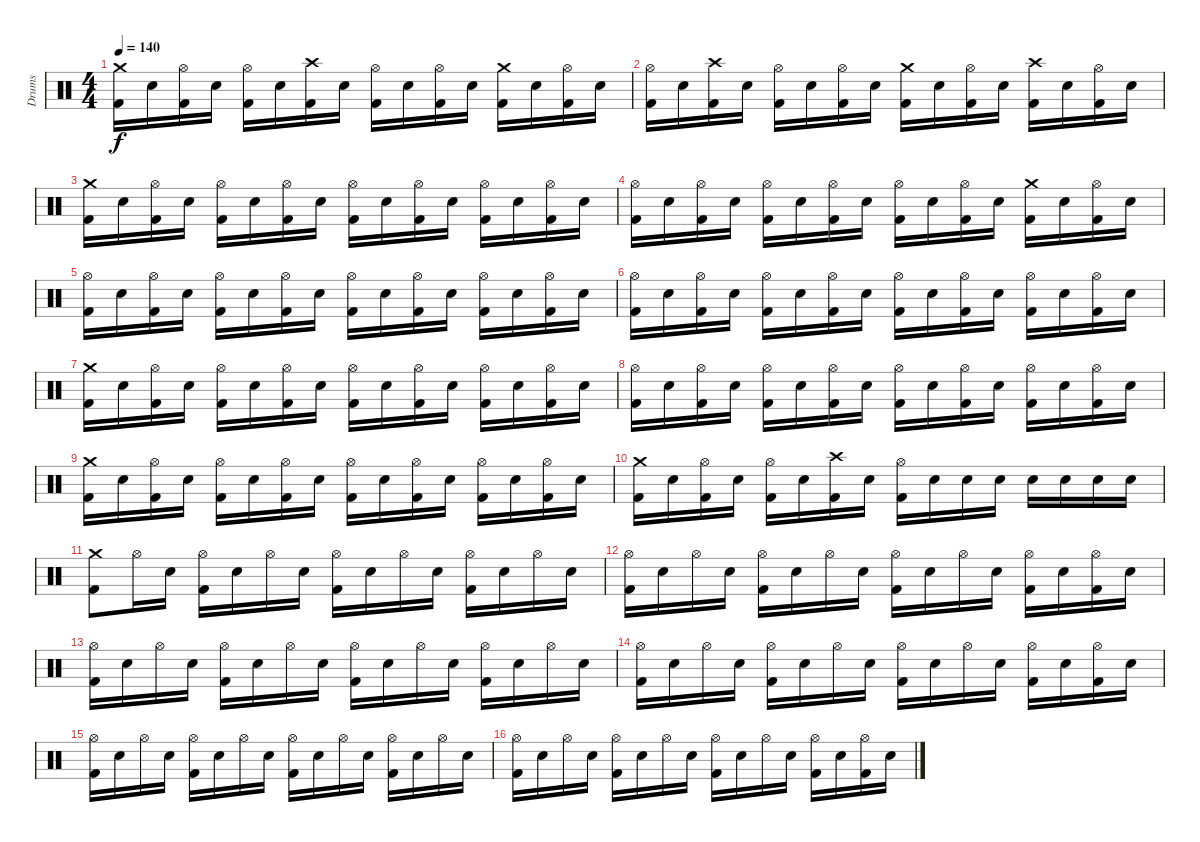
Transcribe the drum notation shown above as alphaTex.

\track ("Drums" "Drums") {instrument percussion}
\staff {score}
\articulation defaults
\ts (4 4)
\tempo 140
\clef neutral
\ks c
("Crash medium (hit)" "Kick (hit) 2").16{dy f} "Electric Snare (hit)".16 ("Hi-Hat (open)" "Kick (hit) 2").16 "Electric Snare (hit)".16 ("Hi-Hat (open)" "Kick (hit) 2").16 "Electric Snare (hit)".16 ("Crash high (hit)" "Kick (hit) 2").16 "Electric Snare (hit)".16 ("Hi-Hat (open)" "Kick (hit) 2").16 "Electric Snare (hit)".16 ("Hi-Hat (open)" "Kick (hit) 2").16 "Electric Snare (hit)".16 ("Crash medium (hit)" "Kick (hit) 2").16 "Electric Snare (hit)".16 ("Hi-Hat (open)" "Kick (hit) 2").16 "Electric Snare (hit)".16 |
("Hi-Hat (open)" "Kick (hit) 2").16 "Electric Snare (hit)".16 ("Crash high (hit)" "Kick (hit) 2").16 "Electric Snare (hit)".16 ("Hi-Hat (open)" "Kick (hit) 2").16 "Electric Snare (hit)".16 ("Hi-Hat (open)" "Kick (hit) 2").16 "Electric Snare (hit)".16 ("Crash medium (hit)" "Kick (hit) 2").16 "Electric Snare (hit)".16 ("Hi-Hat (open)" "Kick (hit) 2").16 "Electric Snare (hit)".16 ("Crash high (hit)" "Kick (hit) 2").16 "Electric Snare (hit)".16 ("Hi-Hat (open)" "Kick (hit) 2").16 "Electric Snare (hit)".16 |
("Crash medium (hit)" "Kick (hit) 2").16 "Electric Snare (hit)".16 ("Hi-Hat (open)" "Kick (hit) 2").16 "Electric Snare (hit)".16 ("Hi-Hat (open)" "Kick (hit) 2").16 "Electric Snare (hit)".16 ("Hi-Hat (open)" "Kick (hit) 2").16 "Electric Snare (hit)".16 ("Hi-Hat (open)" "Kick (hit) 2").16 "Electric Snare (hit)".16 ("Hi-Hat (open)" "Kick (hit) 2").16 "Electric Snare (hit)".16 ("Hi-Hat (open)" "Kick (hit) 2").16 "Electric Snare (hit)".16 ("Hi-Hat (open)" "Kick (hit) 2").16 "Electric Snare (hit)".16 |
("Hi-Hat (open)" "Kick (hit) 2").16 "Electric Snare (hit)".16 ("Hi-Hat (open)" "Kick (hit) 2").16 "Electric Snare (hit)".16 ("Hi-Hat (open)" "Kick (hit) 2").16 "Electric Snare (hit)".16 ("Hi-Hat (open)" "Kick (hit) 2").16 "Electric Snare (hit)".16 ("Hi-Hat (open)" "Kick (hit) 2").16 "Electric Snare (hit)".16 ("Hi-Hat (open)" "Kick (hit) 2").16 "Electric Snare (hit)".16 ("Crash medium (hit)" "Kick (hit) 2").16 "Electric Snare (hit)".16 ("Hi-Hat (open)" "Kick (hit) 2").16 "Electric Snare (hit)".16 |
("Hi-Hat (open)" "Kick (hit) 2").16 "Electric Snare (hit)".16 ("Hi-Hat (open)" "Kick (hit) 2").16 "Electric Snare (hit)".16 ("Hi-Hat (open)" "Kick (hit) 2").16 "Electric Snare (hit)".16 ("Hi-Hat (open)" "Kick (hit) 2").16 "Electric Snare (hit)".16 ("Hi-Hat (open)" "Kick (hit) 2").16 "Electric Snare (hit)".16 ("Hi-Hat (open)" "Kick (hit) 2").16 "Electric Snare (hit)".16 ("Hi-Hat (open)" "Kick (hit) 2").16 "Electric Snare (hit)".16 ("Hi-Hat (open)" "Kick (hit) 2").16 "Electric Snare (hit)".16 |
("Hi-Hat (open)" "Kick (hit) 2").16 "Electric Snare (hit)".16 ("Hi-Hat (open)" "Kick (hit) 2").16 "Electric Snare (hit)".16 ("Hi-Hat (open)" "Kick (hit) 2").16 "Electric Snare (hit)".16 ("Hi-Hat (open)" "Kick (hit) 2").16 "Electric Snare (hit)".16 ("Hi-Hat (open)" "Kick (hit) 2").16 "Electric Snare (hit)".16 ("Hi-Hat (open)" "Kick (hit) 2").16 "Electric Snare (hit)".16 ("Hi-Hat (open)" "Kick (hit) 2").16 "Electric Snare (hit)".16 ("Hi-Hat (open)" "Kick (hit) 2").16 "Electric Snare (hit)".16 |
("Crash medium (hit)" "Kick (hit) 2").16 "Electric Snare (hit)".16 ("Hi-Hat (open)" "Kick (hit) 2").16 "Electric Snare (hit)".16 ("Hi-Hat (open)" "Kick (hit) 2").16 "Electric Snare (hit)".16 ("Hi-Hat (open)" "Kick (hit) 2").16 "Electric Snare (hit)".16 ("Hi-Hat (open)" "Kick (hit) 2").16 "Electric Snare (hit)".16 ("Hi-Hat (open)" "Kick (hit) 2").16 "Electric Snare (hit)".16 ("Hi-Hat (open)" "Kick (hit) 2").16 "Electric Snare (hit)".16 ("Hi-Hat (open)" "Kick (hit) 2").16 "Electric Snare (hit)".16 |
("Hi-Hat (open)" "Kick (hit) 2").16 "Electric Snare (hit)".16 ("Hi-Hat (open)" "Kick (hit) 2").16 "Electric Snare (hit)".16 ("Hi-Hat (open)" "Kick (hit) 2").16 "Electric Snare (hit)".16 ("Hi-Hat (open)" "Kick (hit) 2").16 "Electric Snare (hit)".16 ("Hi-Hat (open)" "Kick (hit) 2").16 "Electric Snare (hit)".16 ("Hi-Hat (open)" "Kick (hit) 2").16 "Electric Snare (hit)".16 ("Hi-Hat (open)" "Kick (hit) 2").16 "Electric Snare (hit)".16 ("Hi-Hat (open)" "Kick (hit) 2").16 "Electric Snare (hit)".16 |
("Crash medium (hit)" "Kick (hit) 2").16 "Electric Snare (hit)".16 ("Hi-Hat (open)" "Kick (hit) 2").16 "Electric Snare (hit)".16 ("Hi-Hat (open)" "Kick (hit) 2").16 "Electric Snare (hit)".16 ("Hi-Hat (open)" "Kick (hit) 2").16 "Electric Snare (hit)".16 ("Hi-Hat (open)" "Kick (hit) 2").16 "Electric Snare (hit)".16 ("Hi-Hat (open)" "Kick (hit) 2").16 "Electric Snare (hit)".16 ("Hi-Hat (open)" "Kick (hit) 2").16 "Electric Snare (hit)".16 ("Hi-Hat (open)" "Kick (hit) 2").16 "Electric Snare (hit)".16 |
("Crash medium (hit)" "Kick (hit) 2").16 "Electric Snare (hit)".16 ("Hi-Hat (open)" "Kick (hit) 2").16 "Electric Snare (hit)".16 ("Hi-Hat (open)" "Kick (hit) 2").16 "Electric Snare (hit)".16 ("Crash high (hit)" "Kick (hit) 2").16 "Electric Snare (hit)".16 ("Hi-Hat (open)" "Kick (hit) 2").16 "Electric Snare (hit)".16 "Electric Snare (hit)".16 "Electric Snare (hit)".16 "Electric Snare (hit)".16 "Electric Snare (hit)".16 "Electric Snare (hit)".16 "Electric Snare (hit)".16 |
("Crash medium (hit)" "Kick (hit) 2").8 "Hi-Hat (open)".16 "Electric Snare (hit)".16 ("Hi-Hat (open)" "Kick (hit) 2").16 "Electric Snare (hit)".16 "Hi-Hat (open)".16 "Electric Snare (hit)".16 ("Hi-Hat (open)" "Kick (hit) 2").16 "Electric Snare (hit)".16 "Hi-Hat (open)".16 "Electric Snare (hit)".16 ("Hi-Hat (open)" "Kick (hit) 2").16 "Electric Snare (hit)".16 "Hi-Hat (open)".16 "Electric Snare (hit)".16 |
("Hi-Hat (open)" "Kick (hit) 2").16 "Electric Snare (hit)".16 "Hi-Hat (open)".16 "Electric Snare (hit)".16 ("Hi-Hat (open)" "Kick (hit) 2").16 "Electric Snare (hit)".16 "Hi-Hat (open)".16 "Electric Snare (hit)".16 ("Hi-Hat (open)" "Kick (hit) 2").16 "Electric Snare (hit)".16 "Hi-Hat (open)".16 "Electric Snare (hit)".16 ("Hi-Hat (open)" "Kick (hit) 2").16 "Electric Snare (hit)".16 ("Hi-Hat (open)" "Kick (hit) 2").16 "Electric Snare (hit)".16 |
("Hi-Hat (open)" "Kick (hit) 2").16 "Electric Snare (hit)".16 "Hi-Hat (open)".16 "Electric Snare (hit)".16 ("Hi-Hat (open)" "Kick (hit) 2").16 "Electric Snare (hit)".16 "Hi-Hat (open)".16 "Electric Snare (hit)".16 ("Hi-Hat (open)" "Kick (hit) 2").16 "Electric Snare (hit)".16 "Hi-Hat (open)".16 "Electric Snare (hit)".16 ("Hi-Hat (open)" "Kick (hit) 2").16 "Electric Snare (hit)".16 "Hi-Hat (open)".16 "Electric Snare (hit)".16 |
("Hi-Hat (open)" "Kick (hit) 2").16 "Electric Snare (hit)".16 "Hi-Hat (open)".16 "Electric Snare (hit)".16 ("Hi-Hat (open)" "Kick (hit) 2").16 "Electric Snare (hit)".16 "Hi-Hat (open)".16 "Electric Snare (hit)".16 ("Hi-Hat (open)" "Kick (hit) 2").16 "Electric Snare (hit)".16 "Hi-Hat (open)".16 "Electric Snare (hit)".16 ("Hi-Hat (open)" "Kick (hit) 2").16 "Electric Snare (hit)".16 ("Hi-Hat (open)" "Kick (hit) 2").16 "Electric Snare (hit)".16 |
("Hi-Hat (open)" "Kick (hit) 2").16 "Electric Snare (hit)".16 "Hi-Hat (open)".16 "Electric Snare (hit)".16 ("Hi-Hat (open)" "Kick (hit) 2").16 "Electric Snare (hit)".16 "Hi-Hat (open)".16 "Electric Snare (hit)".16 ("Hi-Hat (open)" "Kick (hit) 2").16 "Electric Snare (hit)".16 "Hi-Hat (open)".16 "Electric Snare (hit)".16 ("Hi-Hat (open)" "Kick (hit) 2").16 "Electric Snare (hit)".16 "Hi-Hat (open)".16 "Electric Snare (hit)".16 |
("Hi-Hat (open)" "Kick (hit) 2").16 "Electric Snare (hit)".16 "Hi-Hat (open)".16 "Electric Snare (hit)".16 ("Hi-Hat (open)" "Kick (hit) 2").16 "Electric Snare (hit)".16 "Hi-Hat (open)".16 "Electric Snare (hit)".16 ("Hi-Hat (open)" "Kick (hit) 2").16 "Electric Snare (hit)".16 "Hi-Hat (open)".16 "Electric Snare (hit)".16 ("Hi-Hat (open)" "Kick (hit) 2").16 "Electric Snare (hit)".16 ("Hi-Hat (open)" "Kick (hit) 2").16 "Electric Snare (hit)".16
